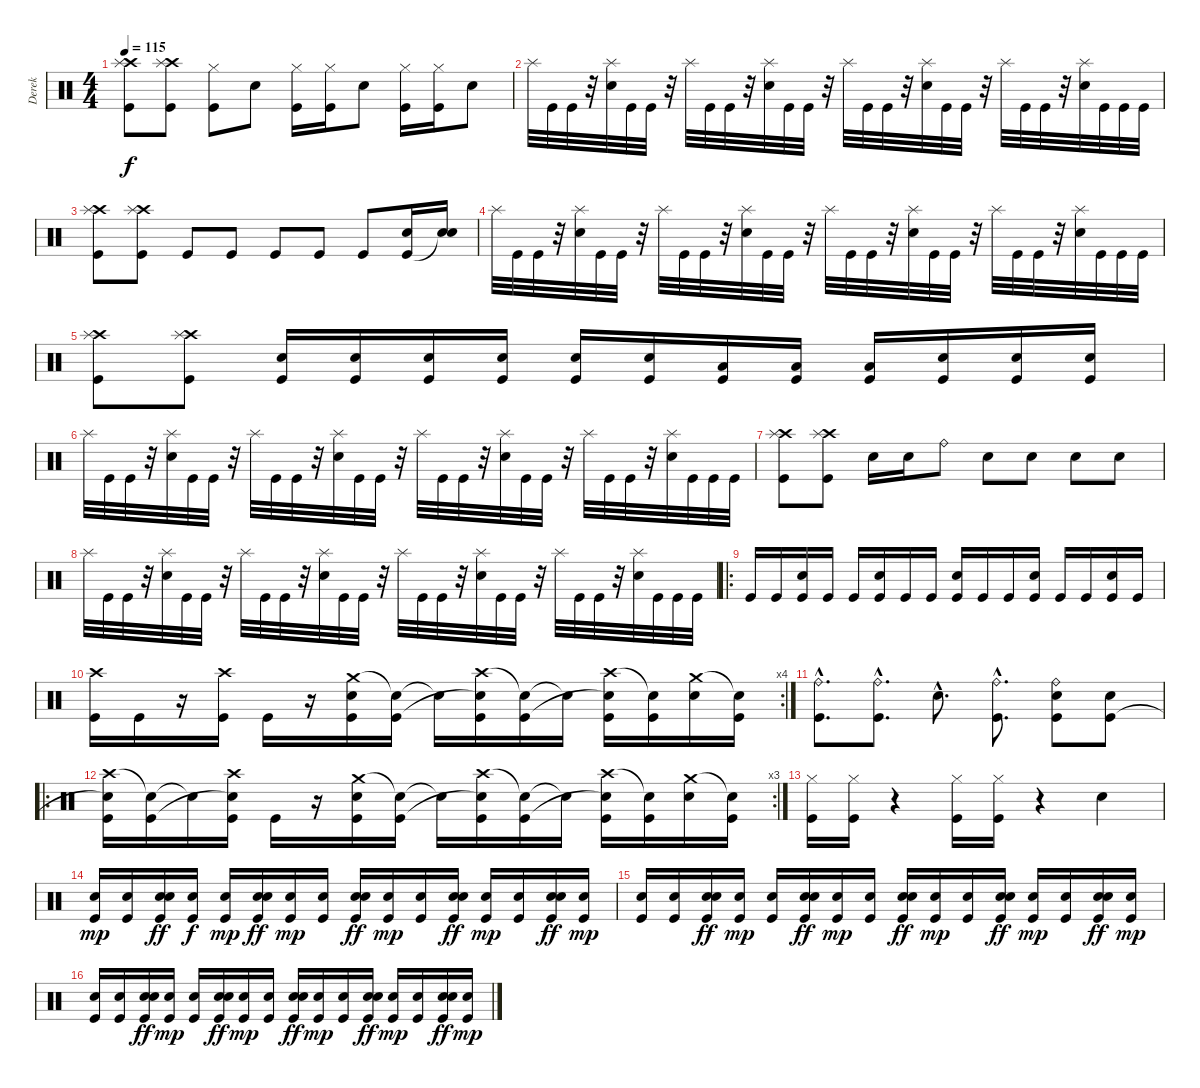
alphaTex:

\track ("Derek" "Derek") {instrument percussion}
\staff {score}
\articulation defaults
\ts (4 4)
\tempo 115
\clef neutral
\ks c
("Crash high (hit)" "Splash (hit)" "Kick (hit)").8{dy f} ("Crash high (hit)" "Splash (hit)" "Kick (hit)").8 ("Hi-Hat (closed)" "Kick (hit)").8 "Electric Snare (hit)".8 ("Hi-Hat (closed)" "Kick (hit)").16 ("Hi-Hat (closed)" "Kick (hit)").16 "Electric Snare (hit)".8 ("Hi-Hat (closed)" "Kick (hit)").16 ("Hi-Hat (closed)" "Kick (hit)").16 "Electric Snare (hit)".8 |
"Splash (hit)".32 "Kick (hit)".32 "Kick (hit)".32 r.32 ("Splash (hit)" "Electric Snare (hit)").32 "Kick (hit)".32 "Kick (hit)".32 r.32 "Splash (hit)".32 "Kick (hit)".32 "Kick (hit)".32 r.32 ("Splash (hit)" "Electric Snare (hit)").32 "Kick (hit)".32 "Kick (hit)".32 r.32 "Splash (hit)".32 "Kick (hit)".32 "Kick (hit)".32 r.32 ("Splash (hit)" "Electric Snare (hit)").32 "Kick (hit)".32 "Kick (hit)".32 r.32 "Splash (hit)".32 "Kick (hit)".32 "Kick (hit)".32 r.32 ("Splash (hit)" "Electric Snare (hit)").32 "Kick (hit)".32 "Kick (hit)".32 "Kick (hit)".32 |
("Crash high (hit)" "Splash (hit)" "Kick (hit)").8 ("Crash high (hit)" "Splash (hit)" "Kick (hit)").8 "Kick (hit)".8 "Kick (hit)".8 "Kick (hit)".8 "Kick (hit)".8 "Kick (hit)".8 ("Electric Snare (hit)" "Kick (hit)").16 ("Electric Snare (hit)" "Snare (hit)"{t}).16 |
"Splash (hit)".32 "Kick (hit)".32 "Kick (hit)".32 r.32 ("Splash (hit)" "Electric Snare (hit)").32 "Kick (hit)".32 "Kick (hit)".32 r.32 "Splash (hit)".32 "Kick (hit)".32 "Kick (hit)".32 r.32 ("Splash (hit)" "Electric Snare (hit)").32 "Kick (hit)".32 "Kick (hit)".32 r.32 "Splash (hit)".32 "Kick (hit)".32 "Kick (hit)".32 r.32 ("Splash (hit)" "Electric Snare (hit)").32 "Kick (hit)".32 "Kick (hit)".32 r.32 "Splash (hit)".32 "Kick (hit)".32 "Kick (hit)".32 r.32 ("Splash (hit)" "Electric Snare (hit)").32 "Kick (hit)".32 "Kick (hit)".32 "Kick (hit)".32 |
("Crash high (hit)" "Splash (hit)" "Kick (hit)").8 ("Crash high (hit)" "Splash (hit)" "Kick (hit)").8 ("Electric Snare (hit)" "Kick (hit)").16 ("Electric Snare (hit)" "Kick (hit)").16 ("Electric Snare (hit)" "Kick (hit)").16 ("Electric Snare (hit)" "Kick (hit)").16 ("Electric Snare (hit)" "Kick (hit)").16 ("Electric Snare (hit)" "Kick (hit)").16 ("Low Tom (hit)" "Kick (hit)").16 ("Low Tom (hit)" "Kick (hit)").16 ("Low Tom (hit)" "Kick (hit)").16 ("Electric Snare (hit)" "Kick (hit)").16 ("Electric Snare (hit)" "Kick (hit)").16 ("Electric Snare (hit)" "Kick (hit)").16 |
"Splash (hit)".32 "Kick (hit)".32 "Kick (hit)".32 r.32 ("Splash (hit)" "Electric Snare (hit)").32 "Kick (hit)".32 "Kick (hit)".32 r.32 "Splash (hit)".32 "Kick (hit)".32 "Kick (hit)".32 r.32 ("Splash (hit)" "Electric Snare (hit)").32 "Kick (hit)".32 "Kick (hit)".32 r.32 "Splash (hit)".32 "Kick (hit)".32 "Kick (hit)".32 r.32 ("Splash (hit)" "Electric Snare (hit)").32 "Kick (hit)".32 "Kick (hit)".32 r.32 "Splash (hit)".32 "Kick (hit)".32 "Kick (hit)".32 r.32 ("Splash (hit)" "Electric Snare (hit)").32 "Kick (hit)".32 "Kick (hit)".32 "Kick (hit)".32 |
("Crash high (hit)" "Splash (hit)" "Kick (hit)").8 ("Crash high (hit)" "Splash (hit)" "Kick (hit)").8 "Electric Snare (hit)".16 "Electric Snare (hit)".16 "Ride (bell)".8 "Electric Snare (hit)".8 "Electric Snare (hit)".8 "Electric Snare (hit)".8 "Electric Snare (hit)".8 |
"Splash (hit)".32 "Kick (hit)".32 "Kick (hit)".32 r.32 ("Splash (hit)" "Electric Snare (hit)").32 "Kick (hit)".32 "Kick (hit)".32 r.32 "Splash (hit)".32 "Kick (hit)".32 "Kick (hit)".32 r.32 ("Splash (hit)" "Electric Snare (hit)").32 "Kick (hit)".32 "Kick (hit)".32 r.32 "Splash (hit)".32 "Kick (hit)".32 "Kick (hit)".32 r.32 ("Splash (hit)" "Electric Snare (hit)").32 "Kick (hit)".32 "Kick (hit)".32 r.32 "Splash (hit)".32 "Kick (hit)".32 "Kick (hit)".32 r.32 ("Splash (hit)" "Electric Snare (hit)").32 "Kick (hit)".32 "Kick (hit)".32 "Kick (hit)".32 |
\ro "Kick (hit)".16 "Kick (hit)".16
("Electric Snare (hit)" "Kick (hit)").16 "Kick (hit)".16 "Kick (hit)".16 ("Electric Snare (hit)" "Kick (hit)").16 "Kick (hit)".16 "Kick (hit)".16 ("Electric Snare (hit)" "Kick (hit)").16 "Kick (hit)".16 "Kick (hit)".16 ("Electric Snare (hit)" "Kick (hit)").16 "Kick (hit)".16 "Kick (hit)".16 ("Electric Snare (hit)" "Kick (hit)").16 "Kick (hit)".16 |
\rc 4
("Crash high (hit)" "Kick (hit)").16 "Kick (hit)".16 r.16 ("Crash high (hit)" "Kick (hit)").16 "Kick (hit)".16 r.16 ("Crash medium (hit)" "Electric Snare (hit)" "Kick (hit)").16 ("Snare (hit)"{t} "Kick (hit)").16 "Snare (hit)"{t}.16 ("Crash high (hit)" "Electric Snare (hit)"{t} "Kick (hit)").16 ("Snare (hit)"{t} "Kick (hit)").16 "Snare (hit)"{t}.16 ("Crash high (hit)" "Electric Snare (hit)"{t} "Kick (hit)").16 ("Snare (hit)"{t} "Kick (hit)").16 ("Crash medium (hit)" "Electric Snare (hit)").16 ("Snare (hit)"{t} "Kick (hit)").16 |
("Ride (bell)"{hac} "Kick (hit)"{hac}).8{d} ("Ride (bell)"{hac} "Kick (hit)"{hac}).8{d} "Electric Snare (hit)"{hac}.8{d} ("Ride (bell)"{hac} "Kick (hit)"{hac}).8{d} ("Ride (bell)" "Electric Snare (hit)" "Kick (hit)").8 ("Electric Snare (hit)" "Kick (hit)").8 |
\ro
\rc 3
("Crash high (hit)" "Electric Snare (hit)"{t} "Kick (hit)").16 ("Snare (hit)"{t} "Kick (hit)").16 "Snare (hit)"{t}.16 ("Crash high (hit)" "Electric Snare (hit)"{t} "Kick (hit)").16 "Kick (hit)".16 r.16 ("Crash medium (hit)" "Electric Snare (hit)" "Kick (hit)").16 ("Snare (hit)"{t} "Kick (hit)").16 "Snare (hit)"{t}.16 ("Crash high (hit)" "Electric Snare (hit)"{t} "Kick (hit)").16 ("Snare (hit)"{t} "Kick (hit)").16 "Snare (hit)"{t}.16 ("Crash high (hit)" "Electric Snare (hit)"{t} "Kick (hit)").16 ("Snare (hit)"{t} "Kick (hit)").16 ("Crash medium (hit)" "Electric Snare (hit)").16 ("Snare (hit)"{t} "Kick (hit)").16 |
("Hi-Hat (closed)" "Kick (hit)").16 ("Hi-Hat (closed)" "Kick (hit)").16 r.4 ("Hi-Hat (closed)" "Kick (hit)").16 ("Hi-Hat (closed)" "Kick (hit)").16 r.4 "Electric Snare (hit)".4 |
("Electric Snare (hit)" "Kick (hit)").16{dy mp} ("Electric Snare (hit)" "Kick (hit)").16 ("Electric Snare (hit)" "Electric Snare (hit)" "Kick (hit)").16{dy ff} ("Electric Snare (hit)" "Kick (hit)").16{dy f} ("Electric Snare (hit)" "Kick (hit)").16{dy mp} ("Electric Snare (hit)" "Electric Snare (hit)" "Kick (hit)").16{dy ff} ("Electric Snare (hit)" "Kick (hit)").16{dy mp} ("Electric Snare (hit)" "Kick (hit)").16 ("Electric Snare (hit)" "Electric Snare (hit)" "Kick (hit)").16{dy ff} ("Electric Snare (hit)" "Kick (hit)").16{dy mp} ("Electric Snare (hit)" "Kick (hit)").16 ("Electric Snare (hit)" "Electric Snare (hit)" "Kick (hit)").16{dy ff} ("Electric Snare (hit)" "Kick (hit)").16{dy mp} ("Electric Snare (hit)" "Kick (hit)").16 ("Electric Snare (hit)" "Electric Snare (hit)" "Kick (hit)").16{dy ff} ("Electric Snare (hit)" "Kick (hit)").16{dy mp} |
("Electric Snare (hit)" "Kick (hit)").16 ("Electric Snare (hit)" "Kick (hit)").16 ("Electric Snare (hit)" "Electric Snare (hit)" "Kick (hit)").16{dy ff} ("Electric Snare (hit)" "Kick (hit)").16{dy mp} ("Electric Snare (hit)" "Kick (hit)").16 ("Electric Snare (hit)" "Electric Snare (hit)" "Kick (hit)").16{dy ff} ("Electric Snare (hit)" "Kick (hit)").16{dy mp} ("Electric Snare (hit)" "Kick (hit)").16 ("Electric Snare (hit)" "Electric Snare (hit)" "Kick (hit)").16{dy ff} ("Electric Snare (hit)" "Kick (hit)").16{dy mp} ("Electric Snare (hit)" "Kick (hit)").16 ("Electric Snare (hit)" "Electric Snare (hit)" "Kick (hit)").16{dy ff} ("Electric Snare (hit)" "Kick (hit)").16{dy mp} ("Electric Snare (hit)" "Kick (hit)").16 ("Electric Snare (hit)" "Electric Snare (hit)" "Kick (hit)").16{dy ff} ("Electric Snare (hit)" "Kick (hit)").16{dy mp} |
("Electric Snare (hit)" "Kick (hit)").16 ("Electric Snare (hit)" "Kick (hit)").16 ("Electric Snare (hit)" "Electric Snare (hit)" "Kick (hit)").16{dy ff} ("Electric Snare (hit)" "Kick (hit)").16{dy mp} ("Electric Snare (hit)" "Kick (hit)").16 ("Electric Snare (hit)" "Electric Snare (hit)" "Kick (hit)").16{dy ff} ("Electric Snare (hit)" "Kick (hit)").16{dy mp} ("Electric Snare (hit)" "Kick (hit)").16 ("Electric Snare (hit)" "Electric Snare (hit)" "Kick (hit)").16{dy ff} ("Electric Snare (hit)" "Kick (hit)").16{dy mp} ("Electric Snare (hit)" "Kick (hit)").16 ("Electric Snare (hit)" "Electric Snare (hit)" "Kick (hit)").16{dy ff} ("Electric Snare (hit)" "Kick (hit)").16{dy mp} ("Electric Snare (hit)" "Kick (hit)").16 ("Electric Snare (hit)" "Electric Snare (hit)" "Kick (hit)").16{dy ff} ("Electric Snare (hit)" "Kick (hit)").16{dy mp}
